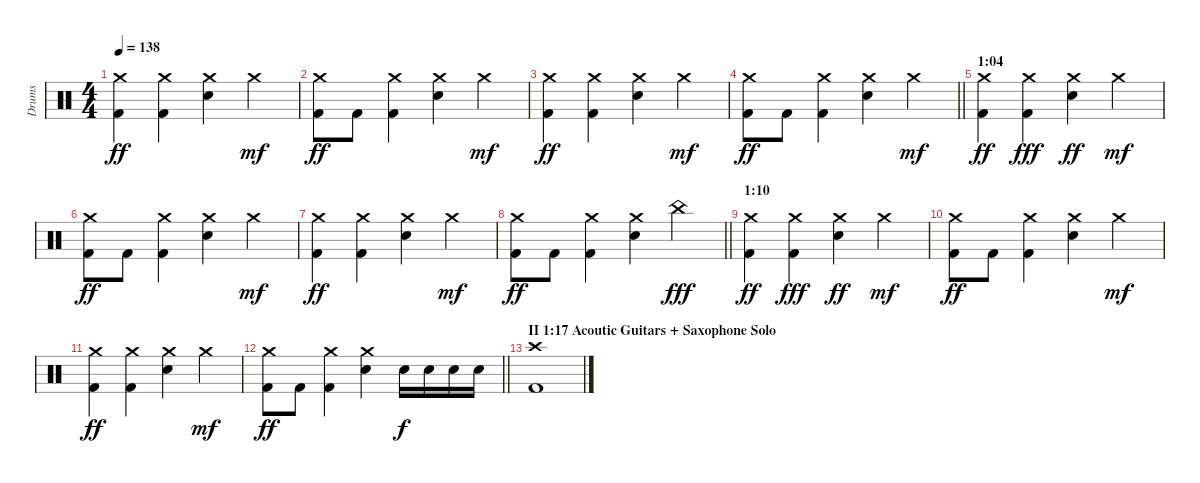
\track ("Drums" "Drums") {instrument percussion}
\staff {score}
\articulation defaults
\ts (4 4)
\tempo 138
\clef neutral
\ks c
("Crash medium (hit)" "Kick (hit) 2").4{dy ff} ("Crash medium (hit)" "Kick (hit) 2").4 ("Crash medium (hit)" "Electric Snare (hit)").4 "Crash medium (hit)".4{dy mf} |
("Crash medium (hit)" "Kick (hit) 2").8{dy ff} "Kick (hit) 2".8 ("Crash medium (hit)" "Kick (hit) 2").4 ("Crash medium (hit)" "Electric Snare (hit)").4 "Crash medium (hit)".4{dy mf} |
("Crash medium (hit)" "Kick (hit) 2").4{dy ff} ("Crash medium (hit)" "Kick (hit) 2").4 ("Crash medium (hit)" "Electric Snare (hit)").4 "Crash medium (hit)".4{dy mf} |
\barLineRight lightlight
("Crash medium (hit)" "Kick (hit) 2").8{dy ff} "Kick (hit) 2".8 ("Crash medium (hit)" "Kick (hit) 2").4 ("Crash medium (hit)" "Electric Snare (hit)").4 "Crash medium (hit)".4{dy mf} |
\section ("" "1:04")
("Crash medium (hit)" "Kick (hit) 2").4{dy ff} ("Crash medium (hit)" "Kick (hit) 2").4{dy fff} ("Crash medium (hit)" "Electric Snare (hit)").4{dy ff} "Crash medium (hit)".4{dy mf} |
("Crash medium (hit)" "Kick (hit) 2").8{dy ff} "Kick (hit) 2".8 ("Crash medium (hit)" "Kick (hit) 2").4 ("Crash medium (hit)" "Electric Snare (hit)").4 "Crash medium (hit)".4{dy mf} |
("Crash medium (hit)" "Kick (hit) 2").4{dy ff} ("Crash medium (hit)" "Kick (hit) 2").4 ("Crash medium (hit)" "Electric Snare (hit)").4 "Crash medium (hit)".4{dy mf} |
\barLineRight lightlight
("Crash medium (hit)" "Kick (hit) 2").8{dy ff} "Kick (hit) 2".8 ("Crash medium (hit)" "Kick (hit) 2").4 ("Crash medium (hit)" "Electric Snare (hit)").4 "China (hit)".4{dy fff} |
\section ("" "1:10")
("Crash medium (hit)" "Kick (hit) 2").4{dy ff} ("Crash medium (hit)" "Kick (hit) 2").4{dy fff} ("Crash medium (hit)" "Electric Snare (hit)").4{dy ff} "Crash medium (hit)".4{dy mf} |
("Crash medium (hit)" "Kick (hit) 2").8{dy ff} "Kick (hit) 2".8 ("Crash medium (hit)" "Kick (hit) 2").4 ("Crash medium (hit)" "Electric Snare (hit)").4 "Crash medium (hit)".4{dy mf} |
("Crash medium (hit)" "Kick (hit) 2").4{dy ff} ("Crash medium (hit)" "Kick (hit) 2").4 ("Crash medium (hit)" "Electric Snare (hit)").4 "Crash medium (hit)".4{dy mf} |
\barLineRight lightlight
("Crash medium (hit)" "Kick (hit) 2").8{dy ff} "Kick (hit) 2".8 ("Crash medium (hit)" "Kick (hit) 2").4 ("Crash medium (hit)" "Electric Snare (hit)").4 "Electric Snare (hit)".16{dy f} "Electric Snare (hit)".16 "Electric Snare (hit)".16 "Electric Snare (hit)".16 |
\section ("" "II 1:17 Acoutic Guitars + Saxophone Solo")
("Crash high (hit)" "Kick (hit) 2").1
